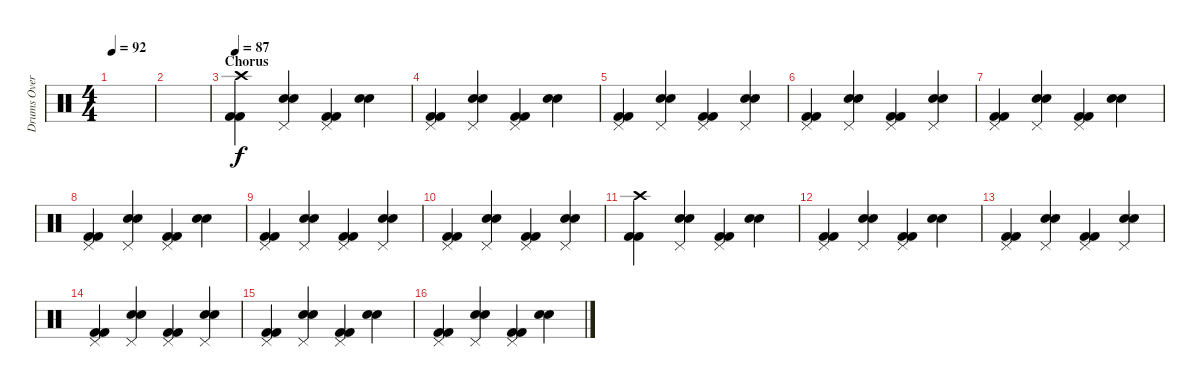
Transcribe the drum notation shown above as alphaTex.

\track ("Drums Overdub" "Drums Over") {instrument percussion}
\staff {score}
\articulation defaults
\ts (4 4)
\tempo 92
\clef neutral
\ks c
|
|
\section ("" "Chorus")
\tempo 87
("Crash high (hit)" "Kick (hit) 2" "Kick (hit) 2").4 ("Snare (hit) 2" "Snare (hit) 2" "Pedal Hi-Hat (hit)").4 ("Pedal Hi-Hat (hit)" "Kick (hit) 2" "Kick (hit) 2").4 ("Snare (hit) 2" "Snare (hit) 2").4 |
("Pedal Hi-Hat (hit)" "Kick (hit) 2" "Kick (hit) 2").4 ("Snare (hit) 2" "Snare (hit) 2" "Pedal Hi-Hat (hit)").4 ("Pedal Hi-Hat (hit)" "Kick (hit) 2" "Kick (hit) 2").4 ("Snare (hit) 2" "Snare (hit) 2").4 |
("Pedal Hi-Hat (hit)" "Kick (hit) 2" "Kick (hit) 2").4 ("Snare (hit) 2" "Snare (hit) 2" "Pedal Hi-Hat (hit)").4 ("Pedal Hi-Hat (hit)" "Kick (hit) 2" "Kick (hit) 2").4 ("Snare (hit) 2" "Snare (hit) 2" "Pedal Hi-Hat (hit)").4 |
("Pedal Hi-Hat (hit)" "Kick (hit) 2" "Kick (hit) 2").4 ("Snare (hit) 2" "Snare (hit) 2" "Pedal Hi-Hat (hit)").4 ("Pedal Hi-Hat (hit)" "Kick (hit) 2" "Kick (hit) 2").4 ("Snare (hit) 2" "Snare (hit) 2" "Pedal Hi-Hat (hit)").4 |
("Pedal Hi-Hat (hit)" "Kick (hit) 2" "Kick (hit) 2").4 ("Snare (hit) 2" "Snare (hit) 2" "Pedal Hi-Hat (hit)").4 ("Pedal Hi-Hat (hit)" "Kick (hit) 2" "Kick (hit) 2").4 ("Snare (hit) 2" "Snare (hit) 2").4 |
("Pedal Hi-Hat (hit)" "Kick (hit) 2" "Kick (hit) 2").4 ("Snare (hit) 2" "Snare (hit) 2" "Pedal Hi-Hat (hit)").4 ("Pedal Hi-Hat (hit)" "Kick (hit) 2" "Kick (hit) 2").4 ("Snare (hit) 2" "Snare (hit) 2").4 |
("Pedal Hi-Hat (hit)" "Kick (hit) 2" "Kick (hit) 2").4 ("Snare (hit) 2" "Snare (hit) 2" "Pedal Hi-Hat (hit)").4 ("Pedal Hi-Hat (hit)" "Kick (hit) 2" "Kick (hit) 2").4 ("Snare (hit) 2" "Snare (hit) 2" "Pedal Hi-Hat (hit)").4 |
("Pedal Hi-Hat (hit)" "Kick (hit) 2" "Kick (hit) 2").4 ("Snare (hit) 2" "Snare (hit) 2" "Pedal Hi-Hat (hit)").4 ("Pedal Hi-Hat (hit)" "Kick (hit) 2" "Kick (hit) 2").4 ("Snare (hit) 2" "Snare (hit) 2" "Pedal Hi-Hat (hit)").4 |
("Crash high (hit)" "Kick (hit) 2" "Kick (hit) 2").4 ("Snare (hit) 2" "Snare (hit) 2" "Pedal Hi-Hat (hit)").4 ("Pedal Hi-Hat (hit)" "Kick (hit) 2" "Kick (hit) 2").4 ("Snare (hit) 2" "Snare (hit) 2").4 |
("Pedal Hi-Hat (hit)" "Kick (hit) 2" "Kick (hit) 2").4 ("Snare (hit) 2" "Snare (hit) 2" "Pedal Hi-Hat (hit)").4 ("Pedal Hi-Hat (hit)" "Kick (hit) 2" "Kick (hit) 2").4 ("Snare (hit) 2" "Snare (hit) 2").4 |
("Pedal Hi-Hat (hit)" "Kick (hit) 2" "Kick (hit) 2").4 ("Snare (hit) 2" "Snare (hit) 2" "Pedal Hi-Hat (hit)").4 ("Pedal Hi-Hat (hit)" "Kick (hit) 2" "Kick (hit) 2").4 ("Snare (hit) 2" "Snare (hit) 2" "Pedal Hi-Hat (hit)").4 |
("Pedal Hi-Hat (hit)" "Kick (hit) 2" "Kick (hit) 2").4{volume 10} ("Snare (hit) 2" "Snare (hit) 2" "Pedal Hi-Hat (hit)").4 ("Pedal Hi-Hat (hit)" "Kick (hit) 2" "Kick (hit) 2").4 ("Snare (hit) 2" "Snare (hit) 2" "Pedal Hi-Hat (hit)").4 |
("Pedal Hi-Hat (hit)" "Kick (hit) 2" "Kick (hit) 2").4{volume 7} ("Snare (hit) 2" "Snare (hit) 2" "Pedal Hi-Hat (hit)").4 ("Pedal Hi-Hat (hit)" "Kick (hit) 2" "Kick (hit) 2").4 ("Snare (hit) 2" "Snare (hit) 2").4 |
("Pedal Hi-Hat (hit)" "Kick (hit) 2" "Kick (hit) 2").4{volume 4} ("Snare (hit) 2" "Snare (hit) 2" "Pedal Hi-Hat (hit)").4 ("Pedal Hi-Hat (hit)" "Kick (hit) 2" "Kick (hit) 2").4 ("Snare (hit) 2" "Snare (hit) 2").4
